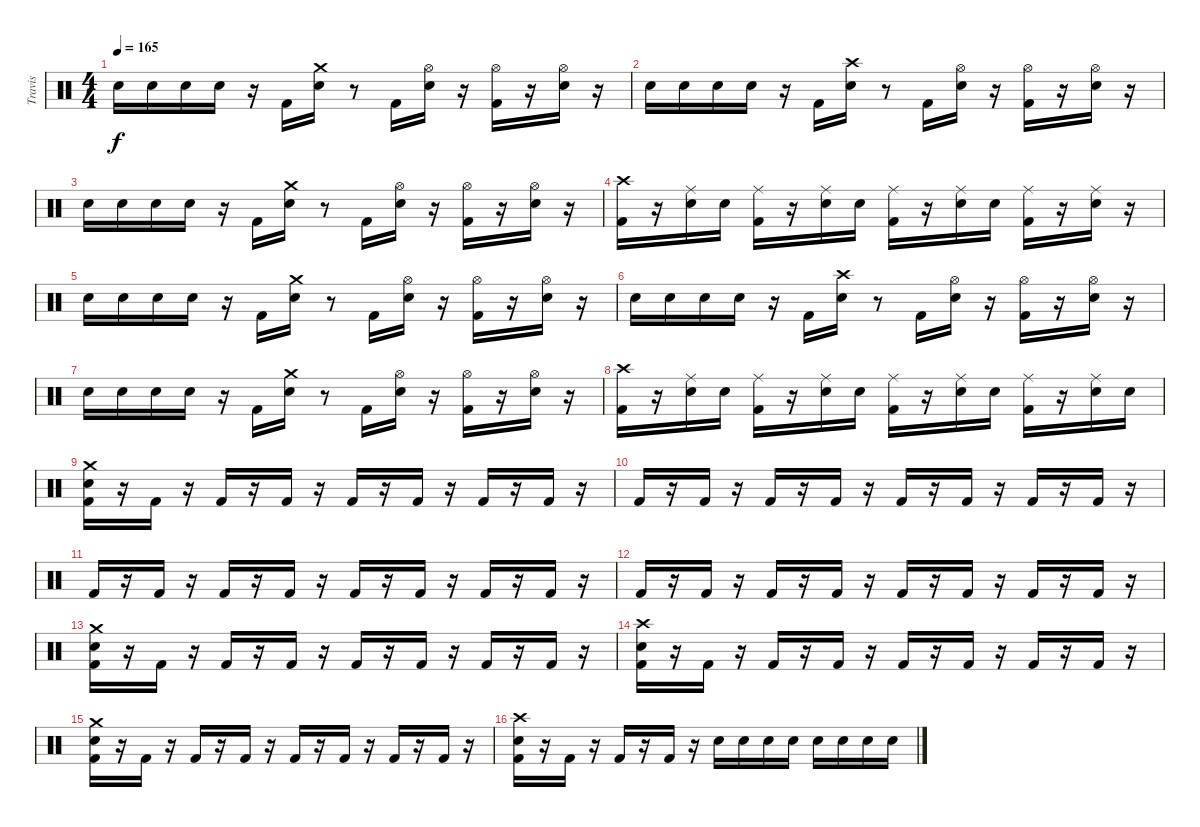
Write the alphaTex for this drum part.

\track ("Travis" "Travis") {instrument percussion}
\staff {score}
\articulation defaults
\ts (4 4)
\tempo 165
\clef neutral
\ks c "Electric Snare (hit)".16{dy f} "Electric Snare (hit)".16 "Electric Snare (hit)".16 "Electric Snare (hit)".16
r.16 "Kick (hit) 2".16 ("Electric Snare (hit)" "Crash medium (hit)").16 r.8 "Kick (hit) 2".16 ("Hi-Hat (open)" "Electric Snare (hit)").16 r.16 ("Hi-Hat (open)" "Kick (hit) 2").16 r.16 ("Hi-Hat (open)" "Electric Snare (hit)").16 r.16 |
"Electric Snare (hit)".16 "Electric Snare (hit)".16 "Electric Snare (hit)".16 "Electric Snare (hit)".16 r.16 "Kick (hit) 2".16 ("Electric Snare (hit)" "Crash high (hit)").16 r.8 "Kick (hit) 2".16 ("Hi-Hat (open)" "Electric Snare (hit)").16 r.16 ("Hi-Hat (open)" "Kick (hit) 2").16 r.16 ("Hi-Hat (open)" "Electric Snare (hit)").16 r.16 |
"Electric Snare (hit)".16 "Electric Snare (hit)".16 "Electric Snare (hit)".16 "Electric Snare (hit)".16 r.16 "Kick (hit) 2".16 ("Electric Snare (hit)" "Crash medium (hit)").16 r.8 "Kick (hit) 2".16 ("Hi-Hat (open)" "Electric Snare (hit)").16 r.16 ("Hi-Hat (open)" "Kick (hit) 2").16 r.16 ("Hi-Hat (open)" "Electric Snare (hit)").16 r.16 |
("Kick (hit) 2" "Crash high (hit)").16 r.16 ("Electric Snare (hit)" "Ride (middle)").16 "Electric Snare (hit)".16 ("Kick (hit) 2" "Ride (middle)").16 r.16 ("Electric Snare (hit)" "Ride (middle)").16 "Electric Snare (hit)".16 ("Kick (hit) 2" "Ride (middle)").16 r.16 ("Electric Snare (hit)" "Ride (middle)").16 "Electric Snare (hit)".16 ("Kick (hit) 2" "Ride (middle)").16 r.16 ("Electric Snare (hit)" "Ride (middle)").16 r.16 |
"Electric Snare (hit)".16 "Electric Snare (hit)".16 "Electric Snare (hit)".16 "Electric Snare (hit)".16 r.16 "Kick (hit) 2".16 ("Electric Snare (hit)" "Crash medium (hit)").16 r.8 "Kick (hit) 2".16 ("Hi-Hat (open)" "Electric Snare (hit)").16 r.16 ("Hi-Hat (open)" "Kick (hit) 2").16 r.16 ("Hi-Hat (open)" "Electric Snare (hit)").16 r.16 |
"Electric Snare (hit)".16 "Electric Snare (hit)".16 "Electric Snare (hit)".16 "Electric Snare (hit)".16 r.16 "Kick (hit) 2".16 ("Electric Snare (hit)" "Crash high (hit)").16 r.8 "Kick (hit) 2".16 ("Hi-Hat (open)" "Electric Snare (hit)").16 r.16 ("Hi-Hat (open)" "Kick (hit) 2").16 r.16 ("Hi-Hat (open)" "Electric Snare (hit)").16 r.16 |
"Electric Snare (hit)".16 "Electric Snare (hit)".16 "Electric Snare (hit)".16 "Electric Snare (hit)".16 r.16 "Kick (hit) 2".16 ("Electric Snare (hit)" "Crash medium (hit)").16 r.8 "Kick (hit) 2".16 ("Hi-Hat (open)" "Electric Snare (hit)").16 r.16 ("Hi-Hat (open)" "Kick (hit) 2").16 r.16 ("Hi-Hat (open)" "Electric Snare (hit)").16 r.16 |
("Kick (hit) 2" "Crash high (hit)").16 r.16 ("Electric Snare (hit)" "Ride (middle)").16 "Electric Snare (hit)".16 ("Kick (hit) 2" "Ride (middle)").16 r.16 ("Electric Snare (hit)" "Ride (middle)").16 "Electric Snare (hit)".16 ("Kick (hit) 2" "Ride (middle)").16 r.16 ("Electric Snare (hit)" "Ride (middle)").16 "Electric Snare (hit)".16 ("Kick (hit) 2" "Ride (middle)").16 r.16 ("Electric Snare (hit)" "Ride (middle)").16 "Electric Snare (hit)".16 |
("Electric Snare (hit)" "Kick (hit) 2" "Crash medium (hit)").16 r.16 "Kick (hit) 2".16 r.16 "Kick (hit) 2".16 r.16 "Kick (hit) 2".16 r.16 "Kick (hit) 2".16 r.16 "Kick (hit) 2".16 r.16 "Kick (hit) 2".16 r.16 "Kick (hit) 2".16 r.16 |
"Kick (hit) 2".16 r.16 "Kick (hit) 2".16 r.16 "Kick (hit) 2".16 r.16 "Kick (hit) 2".16 r.16 "Kick (hit) 2".16 r.16 "Kick (hit) 2".16 r.16 "Kick (hit) 2".16 r.16 "Kick (hit) 2".16 r.16 |
"Kick (hit) 2".16 r.16 "Kick (hit) 2".16 r.16 "Kick (hit) 2".16 r.16 "Kick (hit) 2".16 r.16 "Kick (hit) 2".16 r.16 "Kick (hit) 2".16 r.16 "Kick (hit) 2".16 r.16 "Kick (hit) 2".16 r.16 |
"Kick (hit) 2".16 r.16 "Kick (hit) 2".16 r.16 "Kick (hit) 2".16 r.16 "Kick (hit) 2".16 r.16 "Kick (hit) 2".16 r.16 "Kick (hit) 2".16 r.16 "Kick (hit) 2".16 r.16 "Kick (hit) 2".16 r.16 |
("Electric Snare (hit)" "Kick (hit) 2" "Crash medium (hit)").16 r.16 "Kick (hit) 2".16 r.16 "Kick (hit) 2".16 r.16 "Kick (hit) 2".16 r.16 "Kick (hit) 2".16 r.16 "Kick (hit) 2".16 r.16 "Kick (hit) 2".16 r.16 "Kick (hit) 2".16 r.16 |
("Electric Snare (hit)" "Kick (hit) 2" "Crash high (hit)").16 r.16 "Kick (hit) 2".16 r.16 "Kick (hit) 2".16 r.16 "Kick (hit) 2".16 r.16 "Kick (hit) 2".16 r.16 "Kick (hit) 2".16 r.16 "Kick (hit) 2".16 r.16 "Kick (hit) 2".16 r.16 |
("Electric Snare (hit)" "Kick (hit) 2" "Crash medium (hit)").16 r.16 "Kick (hit) 2".16 r.16 "Kick (hit) 2".16 r.16 "Kick (hit) 2".16 r.16 "Kick (hit) 2".16 r.16 "Kick (hit) 2".16 r.16 "Kick (hit) 2".16 r.16 "Kick (hit) 2".16 r.16 |
("Electric Snare (hit)" "Kick (hit) 2" "Crash high (hit)").16 r.16 "Kick (hit) 2".16 r.16 "Kick (hit) 2".16 r.16 "Kick (hit) 2".16 r.16 "Electric Snare (hit)".16 "Electric Snare (hit)".16 "Electric Snare (hit)".16 "Electric Snare (hit)".16 "Electric Snare (hit)".16 "Electric Snare (hit)".16 "Electric Snare (hit)".16 "Electric Snare (hit)".16
